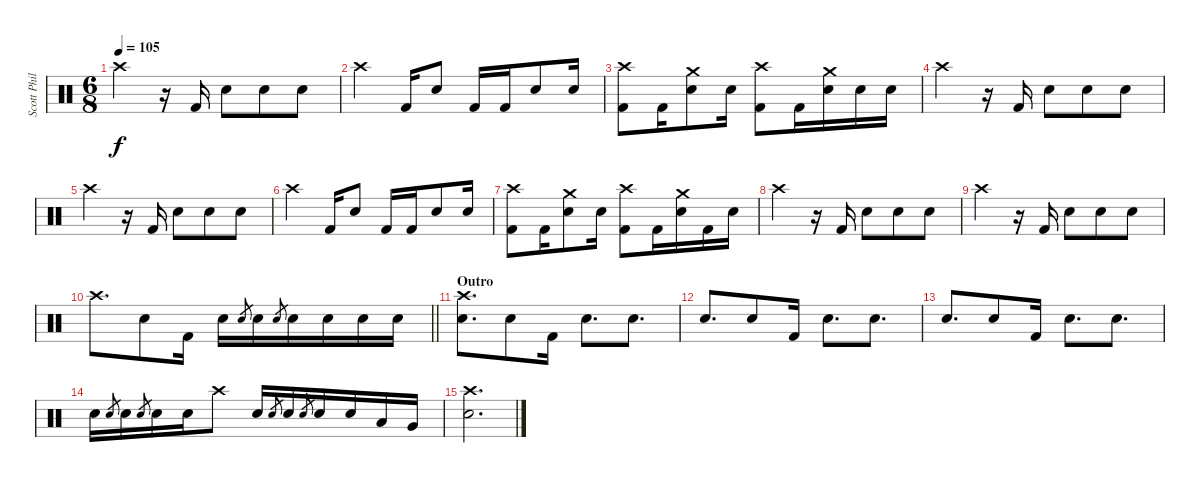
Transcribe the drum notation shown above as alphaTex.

\track ("Scott Phillips (Drums)" "Scott Phil") {instrument percussion}
\staff {score}
\articulation defaults
\ts (6 8)
\tempo 105
\clef neutral
\ks c "Crash high (hit)".4{dy f}
r.16 "Kick (hit) 2".16 "Electric Snare (hit)".8 "Electric Snare (hit)".8 "Electric Snare (hit)".8 |
"Crash high (hit)".4 "Kick (hit) 2".16 "Electric Snare (hit)".8 "Kick (hit) 2".16 "Kick (hit) 2".16 "Electric Snare (hit)".8 "Electric Snare (hit)".16 |
("Crash high (hit)" "Kick (hit) 2").8 "Kick (hit) 2".16 ("Crash medium (hit)" "Electric Snare (hit)").8 "Electric Snare (hit)".16 ("Crash high (hit)" "Kick (hit) 2").8 "Kick (hit) 2".16 ("Crash medium (hit)" "Electric Snare (hit)").16 "Electric Snare (hit)".16 "Electric Snare (hit)".16 |
"Crash high (hit)".4 r.16 "Kick (hit) 2".16 "Electric Snare (hit)".8 "Electric Snare (hit)".8 "Electric Snare (hit)".8 |
"Crash high (hit)".4 r.16 "Kick (hit) 2".16 "Electric Snare (hit)".8 "Electric Snare (hit)".8 "Electric Snare (hit)".8 |
"Crash high (hit)".4 "Kick (hit) 2".16 "Electric Snare (hit)".8 "Kick (hit) 2".16 "Kick (hit) 2".16 "Electric Snare (hit)".8 "Electric Snare (hit)".16 |
("Crash high (hit)" "Kick (hit) 2").8 "Kick (hit) 2".16 ("Crash medium (hit)" "Electric Snare (hit)").8 "Electric Snare (hit)".16 ("Crash high (hit)" "Kick (hit) 2").8 "Kick (hit) 2".16 ("Crash medium (hit)" "Electric Snare (hit)").16 "Kick (hit) 2".16 "Electric Snare (hit)".16 |
"Crash high (hit)".4 r.16 "Kick (hit) 2".16 "Electric Snare (hit)".8 "Electric Snare (hit)".8 "Electric Snare (hit)".8 |
"Crash high (hit)".4 r.16 "Kick (hit) 2".16 "Electric Snare (hit)".8 "Electric Snare (hit)".8 "Electric Snare (hit)".8 |
\barLineRight lightlight "Crash high (hit)".8{d} "Electric Snare (hit)".8 "Kick (hit) 2".16 "Electric Snare (hit)".16 "Electric Snare (hit)".8{gr} "Electric Snare (hit)".16 "Electric Snare (hit)".8{gr} "Electric Snare (hit)".16 "Electric Snare (hit)".16 "Electric Snare (hit)".16 "Electric Snare (hit)".16
|
\section ("" "Outro")
("Crash high (hit)" "Electric Snare (hit)").8{d} "Electric Snare (hit)".8 "Kick (hit) 2".16 "Electric Snare (hit)".8{d} "Electric Snare (hit)".8{d} |
"Electric Snare (hit)".8{d} "Electric Snare (hit)".8 "Kick (hit) 2".16 "Electric Snare (hit)".8{d} "Electric Snare (hit)".8{d} |
"Electric Snare (hit)".8{d} "Electric Snare (hit)".8 "Kick (hit) 2".16 "Electric Snare (hit)".8{d} "Electric Snare (hit)".8{d} |
"Electric Snare (hit)".16 "Electric Snare (hit)".8{gr} "Electric Snare (hit)".16 "Electric Snare (hit)".8{gr} "Electric Snare (hit)".16 "Electric Snare (hit)".16 "Crash high (hit)".8 "Electric Snare (hit)".16 "Electric Snare (hit)".8{gr} "Electric Snare (hit)".16 "Electric Snare (hit)".8{gr} "Electric Snare (hit)".16 "Electric Snare (hit)".16 "Low Tom (hit)".16 "Very Low Tom (hit)".16 |
("Crash high (hit)" "Electric Snare (hit)").2{d}
